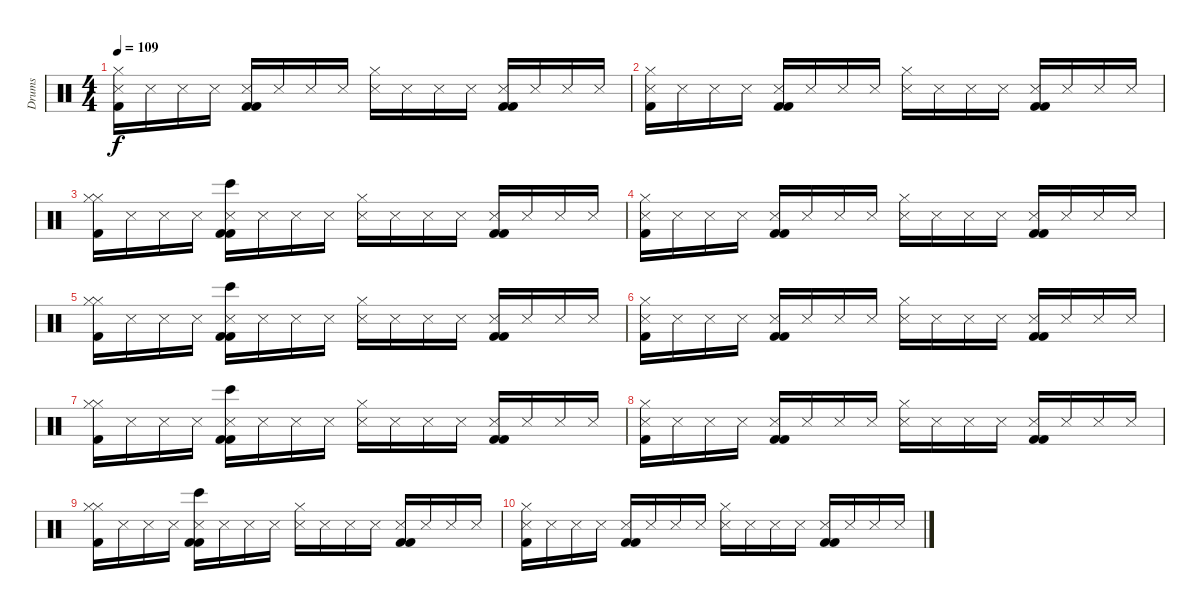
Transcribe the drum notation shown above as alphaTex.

\track ("Drums" "Drums") {instrument percussion}
\staff {score}
\articulation defaults
\ts (4 4)
\tempo 109
\clef neutral
\ks c
("Hi-Hat (closed)" "Snare (side stick) 3" "Kick (hit) 2").16{dy f} "Snare (side stick) 3".16 "Snare (side stick) 3".16 "Snare (side stick) 3".16 ("Snare (side stick) 3" "Kick (hit) 2" "Kick (hit) 2").16 "Snare (side stick) 3".16 "Snare (side stick) 3".16 "Snare (side stick) 3".16 ("Hi-Hat (closed)" "Snare (side stick) 3").16 "Snare (side stick) 3".16 "Snare (side stick) 3".16 "Snare (side stick) 3".16 ("Snare (side stick) 3" "Kick (hit) 2" "Kick (hit) 2").16 "Snare (side stick) 3".16 "Snare (side stick) 3".16 "Snare (side stick) 3".16 |
("Hi-Hat (closed)" "Snare (side stick) 3" "Kick (hit) 2").16 "Snare (side stick) 3".16 "Snare (side stick) 3".16 "Snare (side stick) 3".16 ("Snare (side stick) 3" "Kick (hit) 2" "Kick (hit) 2").16 "Snare (side stick) 3".16 "Snare (side stick) 3".16 "Snare (side stick) 3".16 ("Hi-Hat (closed)" "Snare (side stick) 3").16 "Snare (side stick) 3".16 "Snare (side stick) 3".16 "Snare (side stick) 3".16 ("Snare (side stick) 3" "Kick (hit) 2" "Kick (hit) 2").16 "Snare (side stick) 3".16 "Snare (side stick) 3".16 "Snare (side stick) 3".16 |
("Hi-Hat (closed)" "Hi-Hat (closed)" "Kick (hit) 2").16 "Snare (side stick) 3".16 "Snare (side stick) 3".16 "Snare (side stick) 3".16 ("Bongo High (hit)" "Snare (side stick) 3" "Kick (hit) 2" "Kick (hit) 2").16 "Snare (side stick) 3".16 "Snare (side stick) 3".16 "Snare (side stick) 3".16 ("Hi-Hat (closed)" "Snare (side stick) 3").16 "Snare (side stick) 3".16 "Snare (side stick) 3".16 "Snare (side stick) 3".16 ("Snare (side stick) 3" "Kick (hit) 2" "Kick (hit) 2").16 "Snare (side stick) 3".16 "Snare (side stick) 3".16 "Snare (side stick) 3".16 |
("Hi-Hat (closed)" "Snare (side stick) 3" "Kick (hit) 2").16 "Snare (side stick) 3".16 "Snare (side stick) 3".16 "Snare (side stick) 3".16 ("Snare (side stick) 3" "Kick (hit) 2" "Kick (hit) 2").16 "Snare (side stick) 3".16 "Snare (side stick) 3".16 "Snare (side stick) 3".16 ("Hi-Hat (closed)" "Snare (side stick) 3").16 "Snare (side stick) 3".16 "Snare (side stick) 3".16 "Snare (side stick) 3".16 ("Snare (side stick) 3" "Kick (hit) 2" "Kick (hit) 2").16 "Snare (side stick) 3".16 "Snare (side stick) 3".16 "Snare (side stick) 3".16 |
("Hi-Hat (closed)" "Hi-Hat (closed)" "Kick (hit) 2").16 "Snare (side stick) 3".16 "Snare (side stick) 3".16 "Snare (side stick) 3".16 ("Bongo High (hit)" "Snare (side stick) 3" "Kick (hit) 2" "Kick (hit) 2").16 "Snare (side stick) 3".16 "Snare (side stick) 3".16 "Snare (side stick) 3".16 ("Hi-Hat (closed)" "Snare (side stick) 3").16 "Snare (side stick) 3".16 "Snare (side stick) 3".16 "Snare (side stick) 3".16 ("Snare (side stick) 3" "Kick (hit) 2" "Kick (hit) 2").16 "Snare (side stick) 3".16 "Snare (side stick) 3".16 "Snare (side stick) 3".16 |
("Hi-Hat (closed)" "Snare (side stick) 3" "Kick (hit) 2").16 "Snare (side stick) 3".16 "Snare (side stick) 3".16 "Snare (side stick) 3".16 ("Snare (side stick) 3" "Kick (hit) 2" "Kick (hit) 2").16 "Snare (side stick) 3".16 "Snare (side stick) 3".16 "Snare (side stick) 3".16 ("Hi-Hat (closed)" "Snare (side stick) 3").16 "Snare (side stick) 3".16 "Snare (side stick) 3".16 "Snare (side stick) 3".16 ("Snare (side stick) 3" "Kick (hit) 2" "Kick (hit) 2").16 "Snare (side stick) 3".16 "Snare (side stick) 3".16 "Snare (side stick) 3".16 |
("Hi-Hat (closed)" "Hi-Hat (closed)" "Kick (hit) 2").16 "Snare (side stick) 3".16 "Snare (side stick) 3".16 "Snare (side stick) 3".16 ("Bongo High (hit)" "Snare (side stick) 3" "Kick (hit) 2" "Kick (hit) 2").16 "Snare (side stick) 3".16 "Snare (side stick) 3".16 "Snare (side stick) 3".16 ("Hi-Hat (closed)" "Snare (side stick) 3").16 "Snare (side stick) 3".16 "Snare (side stick) 3".16 "Snare (side stick) 3".16 ("Snare (side stick) 3" "Kick (hit) 2" "Kick (hit) 2").16 "Snare (side stick) 3".16 "Snare (side stick) 3".16 "Snare (side stick) 3".16 |
("Hi-Hat (closed)" "Snare (side stick) 3" "Kick (hit) 2").16 "Snare (side stick) 3".16 "Snare (side stick) 3".16 "Snare (side stick) 3".16 ("Snare (side stick) 3" "Kick (hit) 2" "Kick (hit) 2").16 "Snare (side stick) 3".16 "Snare (side stick) 3".16 "Snare (side stick) 3".16 ("Hi-Hat (closed)" "Snare (side stick) 3").16 "Snare (side stick) 3".16 "Snare (side stick) 3".16 "Snare (side stick) 3".16 ("Snare (side stick) 3" "Kick (hit) 2" "Kick (hit) 2").16 "Snare (side stick) 3".16 "Snare (side stick) 3".16 "Snare (side stick) 3".16 |
("Hi-Hat (closed)" "Hi-Hat (closed)" "Kick (hit) 2").16 "Snare (side stick) 3".16 "Snare (side stick) 3".16 "Snare (side stick) 3".16 ("Bongo High (hit)" "Snare (side stick) 3" "Kick (hit) 2" "Kick (hit) 2").16 "Snare (side stick) 3".16 "Snare (side stick) 3".16 "Snare (side stick) 3".16 ("Hi-Hat (closed)" "Snare (side stick) 3").16 "Snare (side stick) 3".16 "Snare (side stick) 3".16 "Snare (side stick) 3".16 ("Snare (side stick) 3" "Kick (hit) 2" "Kick (hit) 2").16 "Snare (side stick) 3".16 "Snare (side stick) 3".16 "Snare (side stick) 3".16 |
("Hi-Hat (closed)" "Snare (side stick) 3" "Kick (hit) 2").16 "Snare (side stick) 3".16 "Snare (side stick) 3".16 "Snare (side stick) 3".16 ("Snare (side stick) 3" "Kick (hit) 2" "Kick (hit) 2").16 "Snare (side stick) 3".16 "Snare (side stick) 3".16 "Snare (side stick) 3".16 ("Hi-Hat (closed)" "Snare (side stick) 3").16 "Snare (side stick) 3".16 "Snare (side stick) 3".16 "Snare (side stick) 3".16 ("Snare (side stick) 3" "Kick (hit) 2" "Kick (hit) 2").16 "Snare (side stick) 3".16 "Snare (side stick) 3".16 "Snare (side stick) 3".16
